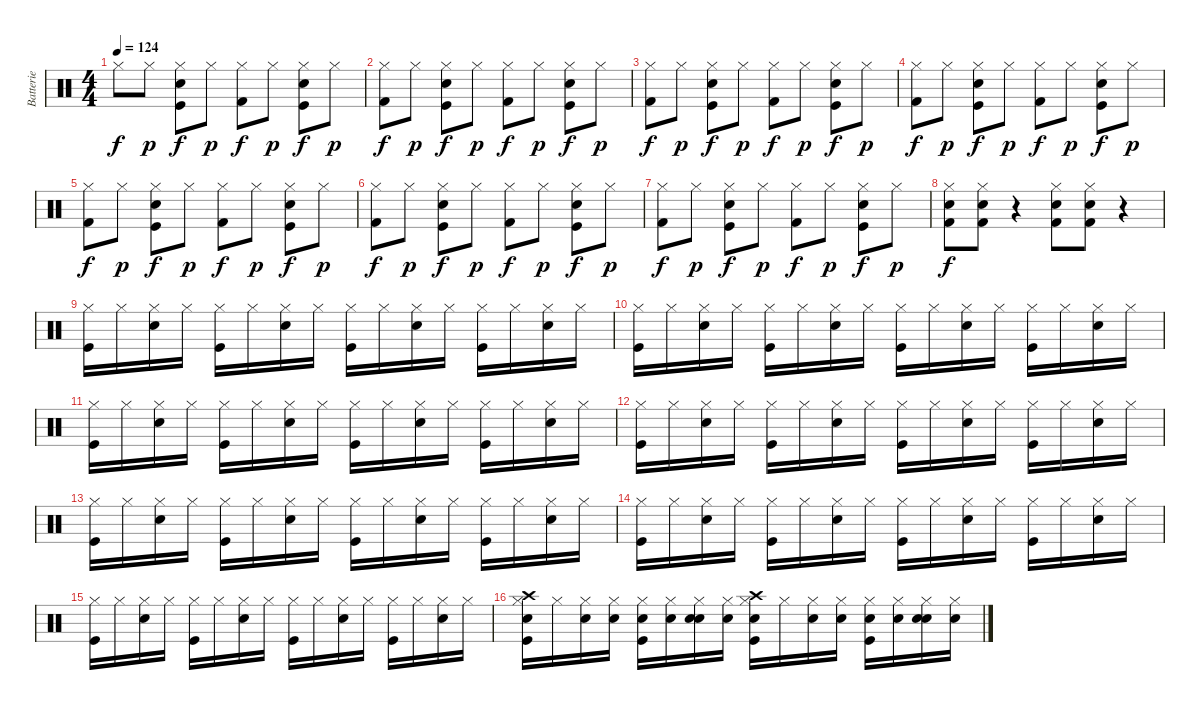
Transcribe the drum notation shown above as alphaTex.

\track ("Batterie" "Batterie") {instrument percussion}
\staff {score}
\articulation defaults
\ts (4 4)
\tempo 124
\clef neutral
\ks c "Hi-Hat (closed)".8{dy f} "Hi-Hat (closed)".8{dy p}
("Hi-Hat (closed)" "Snare (hit) 2" "Kick (hit)").8{dy f} "Hi-Hat (closed)".8{dy p} ("Hi-Hat (closed)" "Kick (hit) 2").8{dy f} "Hi-Hat (closed)".8{dy p} ("Hi-Hat (closed)" "Snare (hit) 2" "Kick (hit)").8{dy f} "Hi-Hat (closed)".8{dy p} |
("Hi-Hat (closed)" "Kick (hit) 2").8{dy f} "Hi-Hat (closed)".8{dy p} ("Hi-Hat (closed)" "Snare (hit) 2" "Kick (hit)").8{dy f} "Hi-Hat (closed)".8{dy p} ("Hi-Hat (closed)" "Kick (hit) 2").8{dy f} "Hi-Hat (closed)".8{dy p} ("Hi-Hat (closed)" "Snare (hit) 2" "Kick (hit)").8{dy f} "Hi-Hat (closed)".8{dy p} |
("Hi-Hat (closed)" "Kick (hit) 2").8{dy f} "Hi-Hat (closed)".8{dy p} ("Hi-Hat (closed)" "Snare (hit) 2" "Kick (hit)").8{dy f} "Hi-Hat (closed)".8{dy p} ("Hi-Hat (closed)" "Kick (hit) 2").8{dy f} "Hi-Hat (closed)".8{dy p} ("Hi-Hat (closed)" "Snare (hit) 2" "Kick (hit)").8{dy f} "Hi-Hat (closed)".8{dy p} |
("Hi-Hat (closed)" "Kick (hit) 2").8{dy f} "Hi-Hat (closed)".8{dy p} ("Hi-Hat (closed)" "Snare (hit) 2" "Kick (hit)").8{dy f} "Hi-Hat (closed)".8{dy p} ("Hi-Hat (closed)" "Kick (hit) 2").8{dy f} "Hi-Hat (closed)".8{dy p} ("Hi-Hat (closed)" "Snare (hit) 2" "Kick (hit)").8{dy f} "Hi-Hat (closed)".8{dy p} |
("Hi-Hat (closed)" "Kick (hit) 2").8{dy f} "Hi-Hat (closed)".8{dy p} ("Hi-Hat (closed)" "Snare (hit) 2" "Kick (hit)").8{dy f} "Hi-Hat (closed)".8{dy p} ("Hi-Hat (closed)" "Kick (hit) 2").8{dy f} "Hi-Hat (closed)".8{dy p} ("Hi-Hat (closed)" "Snare (hit) 2" "Kick (hit)").8{dy f} "Hi-Hat (closed)".8{dy p} |
("Hi-Hat (closed)" "Kick (hit) 2").8{dy f} "Hi-Hat (closed)".8{dy p} ("Hi-Hat (closed)" "Snare (hit) 2" "Kick (hit)").8{dy f} "Hi-Hat (closed)".8{dy p} ("Hi-Hat (closed)" "Kick (hit) 2").8{dy f} "Hi-Hat (closed)".8{dy p} ("Hi-Hat (closed)" "Snare (hit) 2" "Kick (hit)").8{dy f} "Hi-Hat (closed)".8{dy p} |
("Hi-Hat (closed)" "Kick (hit) 2").8{dy f} "Hi-Hat (closed)".8{dy p} ("Hi-Hat (closed)" "Snare (hit) 2" "Kick (hit)").8{dy f} "Hi-Hat (closed)".8{dy p} ("Hi-Hat (closed)" "Kick (hit) 2").8{dy f} "Hi-Hat (closed)".8{dy p} ("Hi-Hat (closed)" "Snare (hit) 2" "Kick (hit)").8{dy f} "Hi-Hat (closed)".8{dy p} |
("Hi-Hat (closed)" "Snare (hit) 2" "Kick (hit) 2").8{dy f} ("Hi-Hat (closed)" "Snare (hit) 2" "Kick (hit) 2").8 r.4 ("Hi-Hat (closed)" "Snare (hit) 2" "Kick (hit) 2").8 ("Hi-Hat (closed)" "Snare (hit) 2" "Kick (hit) 2").8 r.4 |
("Hi-Hat (closed)" "Kick (hit)").16 "Hi-Hat (closed)".16 ("Hi-Hat (closed)" "Snare (hit) 2").16 "Hi-Hat (closed)".16 ("Hi-Hat (closed)" "Kick (hit)").16 "Hi-Hat (closed)".16 ("Hi-Hat (closed)" "Snare (hit) 2").16 "Hi-Hat (closed)".16 ("Hi-Hat (closed)" "Kick (hit)").16 "Hi-Hat (closed)".16 ("Hi-Hat (closed)" "Snare (hit) 2").16 "Hi-Hat (closed)".16 ("Hi-Hat (closed)" "Kick (hit)").16 "Hi-Hat (closed)".16 ("Hi-Hat (closed)" "Snare (hit) 2").16 "Hi-Hat (closed)".16 |
("Hi-Hat (closed)" "Kick (hit)").16 "Hi-Hat (closed)".16 ("Hi-Hat (closed)" "Snare (hit) 2").16 "Hi-Hat (closed)".16 ("Hi-Hat (closed)" "Kick (hit)").16 "Hi-Hat (closed)".16 ("Hi-Hat (closed)" "Snare (hit) 2").16 "Hi-Hat (closed)".16 ("Hi-Hat (closed)" "Kick (hit)").16 "Hi-Hat (closed)".16 ("Hi-Hat (closed)" "Snare (hit) 2").16 "Hi-Hat (closed)".16 ("Hi-Hat (closed)" "Kick (hit)").16 "Hi-Hat (closed)".16 ("Hi-Hat (closed)" "Snare (hit) 2").16 "Hi-Hat (closed)".16 |
("Hi-Hat (closed)" "Kick (hit)").16 "Hi-Hat (closed)".16 ("Hi-Hat (closed)" "Snare (hit) 2").16 "Hi-Hat (closed)".16 ("Hi-Hat (closed)" "Kick (hit)").16 "Hi-Hat (closed)".16 ("Hi-Hat (closed)" "Snare (hit) 2").16 "Hi-Hat (closed)".16 ("Hi-Hat (closed)" "Kick (hit)").16 "Hi-Hat (closed)".16 ("Hi-Hat (closed)" "Snare (hit) 2").16 "Hi-Hat (closed)".16 ("Hi-Hat (closed)" "Kick (hit)").16 "Hi-Hat (closed)".16 ("Hi-Hat (closed)" "Snare (hit) 2").16 "Hi-Hat (closed)".16 |
("Hi-Hat (closed)" "Kick (hit)").16 "Hi-Hat (closed)".16 ("Hi-Hat (closed)" "Snare (hit) 2").16 "Hi-Hat (closed)".16 ("Hi-Hat (closed)" "Kick (hit)").16 "Hi-Hat (closed)".16 ("Hi-Hat (closed)" "Snare (hit) 2").16 "Hi-Hat (closed)".16 ("Hi-Hat (closed)" "Kick (hit)").16 "Hi-Hat (closed)".16 ("Hi-Hat (closed)" "Snare (hit) 2").16 "Hi-Hat (closed)".16 ("Hi-Hat (closed)" "Kick (hit)").16 "Hi-Hat (closed)".16 ("Hi-Hat (closed)" "Snare (hit) 2").16 "Hi-Hat (closed)".16 |
("Hi-Hat (closed)" "Kick (hit)").16 "Hi-Hat (closed)".16 ("Hi-Hat (closed)" "Snare (hit) 2").16 "Hi-Hat (closed)".16 ("Hi-Hat (closed)" "Kick (hit)").16 "Hi-Hat (closed)".16 ("Hi-Hat (closed)" "Snare (hit) 2").16 "Hi-Hat (closed)".16 ("Hi-Hat (closed)" "Kick (hit)").16 "Hi-Hat (closed)".16 ("Hi-Hat (closed)" "Snare (hit) 2").16 "Hi-Hat (closed)".16 ("Hi-Hat (closed)" "Kick (hit)").16 "Hi-Hat (closed)".16 ("Hi-Hat (closed)" "Snare (hit) 2").16 "Hi-Hat (closed)".16 |
("Hi-Hat (closed)" "Kick (hit)").16 "Hi-Hat (closed)".16 ("Hi-Hat (closed)" "Snare (hit) 2").16 "Hi-Hat (closed)".16 ("Hi-Hat (closed)" "Kick (hit)").16 "Hi-Hat (closed)".16 ("Hi-Hat (closed)" "Snare (hit) 2").16 "Hi-Hat (closed)".16 ("Hi-Hat (closed)" "Kick (hit)").16 "Hi-Hat (closed)".16 ("Hi-Hat (closed)" "Snare (hit) 2").16 "Hi-Hat (closed)".16 ("Hi-Hat (closed)" "Kick (hit)").16 "Hi-Hat (closed)".16 ("Hi-Hat (closed)" "Snare (hit) 2").16 "Hi-Hat (closed)".16 |
("Hi-Hat (closed)" "Kick (hit)").16 "Hi-Hat (closed)".16 ("Hi-Hat (closed)" "Snare (hit) 2").16 "Hi-Hat (closed)".16 ("Hi-Hat (closed)" "Kick (hit)").16 "Hi-Hat (closed)".16 ("Hi-Hat (closed)" "Snare (hit) 2").16 "Hi-Hat (closed)".16 ("Hi-Hat (closed)" "Kick (hit)").16 "Hi-Hat (closed)".16 ("Hi-Hat (closed)" "Snare (hit) 2").16 "Hi-Hat (closed)".16 ("Hi-Hat (closed)" "Kick (hit)").16 "Hi-Hat (closed)".16 ("Hi-Hat (closed)" "Snare (hit) 2").16 "Hi-Hat (closed)".16 |
("Hi-Hat (closed)" "Crash high (hit)" "Electric Snare (hit)" "Kick (hit)").16 "Hi-Hat (closed)".16 ("Hi-Hat (closed)" "Snare (hit) 2").16 ("Hi-Hat (closed)" "Electric Snare (hit)").16 ("Hi-Hat (closed)" "Electric Snare (hit)" "Kick (hit)").16 ("Hi-Hat (closed)" "Electric Snare (hit)").16 ("Hi-Hat (closed)" "Electric Snare (hit)" "Snare (hit) 2").16 ("Hi-Hat (closed)" "Electric Snare (hit)").16 ("Hi-Hat (closed)" "Crash high (hit)" "Electric Snare (hit)" "Kick (hit)").16 "Hi-Hat (closed)".16 ("Hi-Hat (closed)" "Snare (hit) 2").16 ("Hi-Hat (closed)" "Electric Snare (hit)").16 ("Hi-Hat (closed)" "Electric Snare (hit)" "Kick (hit)").16 ("Hi-Hat (closed)" "Electric Snare (hit)").16 ("Hi-Hat (closed)" "Electric Snare (hit)" "Snare (hit) 2").16 ("Hi-Hat (closed)" "Electric Snare (hit)").16
